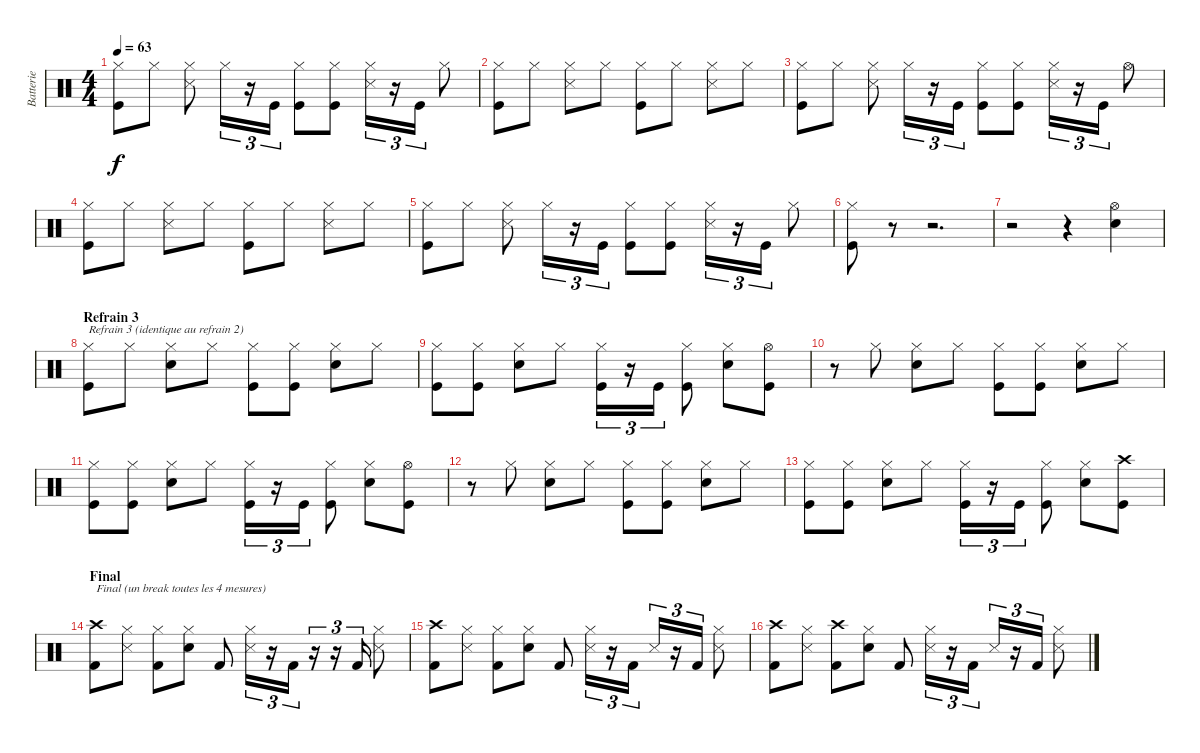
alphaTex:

\track ("Batterie" "Batterie") {instrument percussion}
\staff {score}
\articulation defaults
\ts (4 4)
\tempo 63
\clef neutral
\ks c
("Hi-Hat (closed)" "Kick (hit)").8{dy f} "Hi-Hat (closed)".8 ("Snare (side stick) 3" "Hi-Hat (closed)").8 "Hi-Hat (closed)".16{tu (3 2)} r.16{tu (3 2)} "Kick (hit)".16{tu (3 2)} ("Hi-Hat (closed)" "Kick (hit)").8 ("Hi-Hat (closed)" "Kick (hit)").8 ("Snare (side stick) 3" "Hi-Hat (closed)").16{tu (3 2)} r.16{tu (3 2)} "Kick (hit)".16{tu (3 2)} "Hi-Hat (closed)".8 |
("Hi-Hat (closed)" "Kick (hit)").8 "Hi-Hat (closed)".8 ("Snare (side stick) 3" "Hi-Hat (closed)").8 "Hi-Hat (closed)".8 ("Hi-Hat (closed)" "Kick (hit)").8 "Hi-Hat (closed)".8 ("Snare (side stick) 3" "Hi-Hat (closed)").8 "Hi-Hat (closed)".8 |
("Hi-Hat (closed)" "Kick (hit)").8 "Hi-Hat (closed)".8 ("Snare (side stick) 3" "Hi-Hat (closed)").8 "Hi-Hat (closed)".16{tu (3 2)} r.16{tu (3 2)} "Kick (hit)".16{tu (3 2)} ("Hi-Hat (closed)" "Kick (hit)").8 ("Hi-Hat (closed)" "Kick (hit)").8 ("Snare (side stick) 3" "Hi-Hat (closed)").16{tu (3 2)} r.16{tu (3 2)} "Kick (hit)".16{tu (3 2)} "Hi-Hat (open)".8 |
("Hi-Hat (closed)" "Kick (hit)").8 "Hi-Hat (closed)".8 ("Snare (side stick) 3" "Hi-Hat (closed)").8 "Hi-Hat (closed)".8 ("Hi-Hat (closed)" "Kick (hit)").8 "Hi-Hat (closed)".8 ("Snare (side stick) 3" "Hi-Hat (closed)").8 "Hi-Hat (closed)".8 |
("Hi-Hat (closed)" "Kick (hit)").8 "Hi-Hat (closed)".8 ("Snare (side stick) 3" "Hi-Hat (closed)").8 "Hi-Hat (closed)".16{tu (3 2)} r.16{tu (3 2)} "Kick (hit)".16{tu (3 2)} ("Hi-Hat (closed)" "Kick (hit)").8 ("Hi-Hat (closed)" "Kick (hit)").8 ("Snare (side stick) 3" "Hi-Hat (closed)").16{tu (3 2)} r.16{tu (3 2)} "Kick (hit)".16{tu (3 2)} "Hi-Hat (closed)".8 |
("Hi-Hat (closed)" "Kick (hit)").8 r.8 r.2{d} |
r.2 r.4 ("Electric Snare (hit)" "Hi-Hat (open)").4 |
\section ("" "Refrain 3")
("Hi-Hat (closed)" "Kick (hit)").8{txt "Refrain 3 (identique au refrain 2)"} "Hi-Hat (closed)".8 ("Electric Snare (hit)" "Hi-Hat (closed)").8 "Hi-Hat (closed)".8 ("Hi-Hat (closed)" "Kick (hit)").8 ("Hi-Hat (closed)" "Kick (hit)").8 ("Electric Snare (hit)" "Hi-Hat (closed)").8 "Hi-Hat (closed)".8 |
("Hi-Hat (closed)" "Kick (hit)").8 ("Hi-Hat (closed)" "Kick (hit)").8 ("Electric Snare (hit)" "Hi-Hat (closed)").8 "Hi-Hat (closed)".8 ("Hi-Hat (closed)" "Kick (hit)").16{tu (3 2)} r.16{tu (3 2)} "Kick (hit)".16{tu (3 2)} ("Hi-Hat (closed)" "Kick (hit)").8 ("Electric Snare (hit)" "Hi-Hat (closed)").8 ("Hi-Hat (open)" "Kick (hit)").8 |
r.8 "Hi-Hat (closed)".8 ("Electric Snare (hit)" "Hi-Hat (closed)").8 "Hi-Hat (closed)".8 ("Hi-Hat (closed)" "Kick (hit)").8 ("Hi-Hat (closed)" "Kick (hit)").8 ("Electric Snare (hit)" "Hi-Hat (closed)").8 "Hi-Hat (closed)".8 |
("Hi-Hat (closed)" "Kick (hit)").8 ("Hi-Hat (closed)" "Kick (hit)").8 ("Electric Snare (hit)" "Hi-Hat (closed)").8 "Hi-Hat (closed)".8 ("Hi-Hat (closed)" "Kick (hit)").16{tu (3 2)} r.16{tu (3 2)} "Kick (hit)".16{tu (3 2)} ("Hi-Hat (closed)" "Kick (hit)").8 ("Electric Snare (hit)" "Hi-Hat (closed)").8 ("Hi-Hat (open)" "Kick (hit)").8 |
r.8 "Hi-Hat (closed)".8 ("Electric Snare (hit)" "Hi-Hat (closed)").8 "Hi-Hat (closed)".8 ("Hi-Hat (closed)" "Kick (hit)").8 ("Hi-Hat (closed)" "Kick (hit)").8 ("Electric Snare (hit)" "Hi-Hat (closed)").8 "Hi-Hat (closed)".8 |
("Hi-Hat (closed)" "Kick (hit)").8 ("Hi-Hat (closed)" "Kick (hit)").8 ("Electric Snare (hit)" "Hi-Hat (closed)").8 "Hi-Hat (closed)".8 ("Hi-Hat (closed)" "Kick (hit)").16{tu (3 2)} r.16{tu (3 2)} "Kick (hit)".16{tu (3 2)} ("Hi-Hat (closed)" "Kick (hit)").8 ("Electric Snare (hit)" "Hi-Hat (closed)").8 ("Crash high (hit)" "Kick (hit)").8 |
\section ("" "Final")
("Crash high (hit)" "Kick (hit) 2").8{txt "Final (un break toutes les 4 mesures)"} ("Snare (side stick) 3" "Hi-Hat (closed)").8 ("Hi-Hat (closed)" "Kick (hit) 2").8 ("Electric Snare (hit)" "Hi-Hat (closed)").8 "Kick (hit) 2".8 ("Snare (side stick) 3" "Hi-Hat (closed)").16{tu (3 2)} r.16{tu (3 2)} "Kick (hit) 2".16{tu (3 2)} r.16{tu (3 2)} r.16{tu (3 2)} "Kick (hit) 2".16{tu (3 2)} ("Snare (side stick) 3" "Hi-Hat (closed)").8 |
("Crash high (hit)" "Kick (hit) 2").8 ("Snare (side stick) 3" "Hi-Hat (closed)").8 ("Hi-Hat (closed)" "Kick (hit) 2").8 ("Electric Snare (hit)" "Hi-Hat (closed)").8 "Kick (hit) 2".8 ("Snare (side stick) 3" "Hi-Hat (closed)").16{tu (3 2)} r.16{tu (3 2)} "Kick (hit) 2".16{tu (3 2)} "Snare (side stick) 3".16{tu (3 2)} r.16{tu (3 2)} "Kick (hit) 2".16{tu (3 2)} ("Snare (side stick) 3" "Hi-Hat (closed)").8 |
("Crash high (hit)" "Kick (hit) 2").8 ("Snare (side stick) 3" "Hi-Hat (closed)").8 ("Crash high (hit)" "Kick (hit) 2").8 ("Electric Snare (hit)" "Hi-Hat (closed)").8 "Kick (hit) 2".8 ("Snare (side stick) 3" "Hi-Hat (closed)").16{tu (3 2)} r.16{tu (3 2)} "Kick (hit) 2".16{tu (3 2)} "Snare (side stick) 3".16{tu (3 2)} r.16{tu (3 2)} "Kick (hit) 2".16{tu (3 2)} ("Snare (side stick) 3" "Hi-Hat (closed)").8
